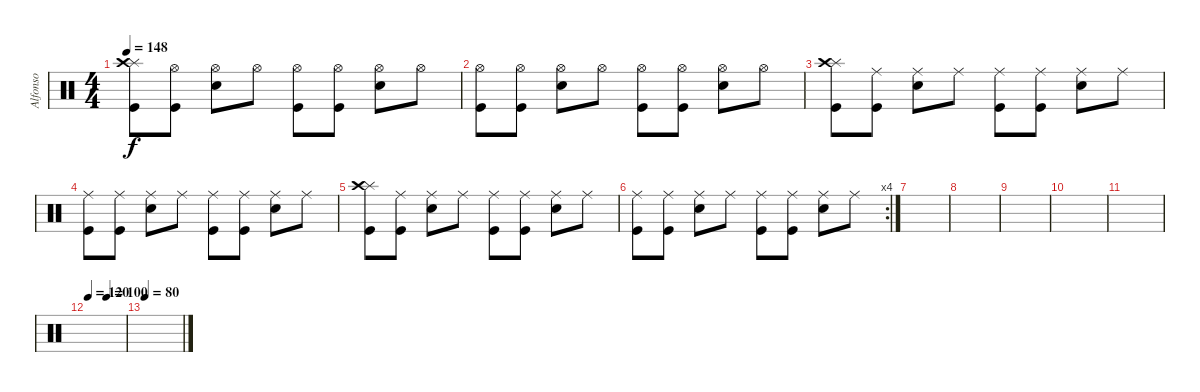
\track ("Alfonso" "Alfonso") {instrument percussion}
\staff {score}
\articulation defaults
\ts (4 4)
\tempo 148
\clef neutral
\ks c
("Kick (hit)" "Splash (hit)" "Crash high (hit)").8{dy f} ("Kick (hit)" "Hi-Hat (open)").8 ("Snare (hit) 2" "Hi-Hat (open)").8 "Hi-Hat (open)".8 ("Kick (hit)" "Hi-Hat (open)").8 ("Kick (hit)" "Hi-Hat (open)").8 ("Snare (hit) 2" "Hi-Hat (open)").8 "Hi-Hat (open)".8 |
("Kick (hit)" "Hi-Hat (open)").8 ("Kick (hit)" "Hi-Hat (open)").8 ("Snare (hit) 2" "Hi-Hat (open)").8 "Hi-Hat (open)".8 ("Kick (hit)" "Hi-Hat (open)").8 ("Kick (hit)" "Hi-Hat (open)").8 ("Snare (hit) 2" "Hi-Hat (open)").8 "Hi-Hat (open)".8 |
("Kick (hit)" "Splash (hit)" "Crash high (hit)").8 ("Kick (hit)" "Ride (middle)").8 ("Snare (hit) 2" "Ride (middle)").8 "Ride (middle)".8 ("Kick (hit)" "Ride (middle)").8 ("Kick (hit)" "Ride (middle)").8 ("Snare (hit) 2" "Ride (middle)").8 "Ride (middle)".8 |
("Kick (hit)" "Ride (middle)").8 ("Kick (hit)" "Ride (middle)").8 ("Snare (hit) 2" "Ride (middle)").8 "Ride (middle)".8 ("Kick (hit)" "Ride (middle)").8 ("Kick (hit)" "Ride (middle)").8 ("Snare (hit) 2" "Ride (middle)").8 "Ride (middle)".8 |
("Kick (hit)" "Splash (hit)" "Crash high (hit)").8 ("Kick (hit)" "Ride (middle)").8 ("Snare (hit) 2" "Ride (middle)").8 "Ride (middle)".8 ("Kick (hit)" "Ride (middle)").8 ("Kick (hit)" "Ride (middle)").8 ("Snare (hit) 2" "Ride (middle)").8 "Ride (middle)".8 |
\rc 4
("Kick (hit)" "Ride (middle)").8 ("Kick (hit)" "Ride (middle)").8 ("Snare (hit) 2" "Ride (middle)").8 "Ride (middle)".8 ("Kick (hit)" "Ride (middle)").8 ("Kick (hit)" "Ride (middle)").8 ("Snare (hit) 2" "Ride (middle)").8 "Ride (middle)".8 |
|
|
|
|
|
\tempo 120
\tempo (100 0.5)
|
\tempo 80
